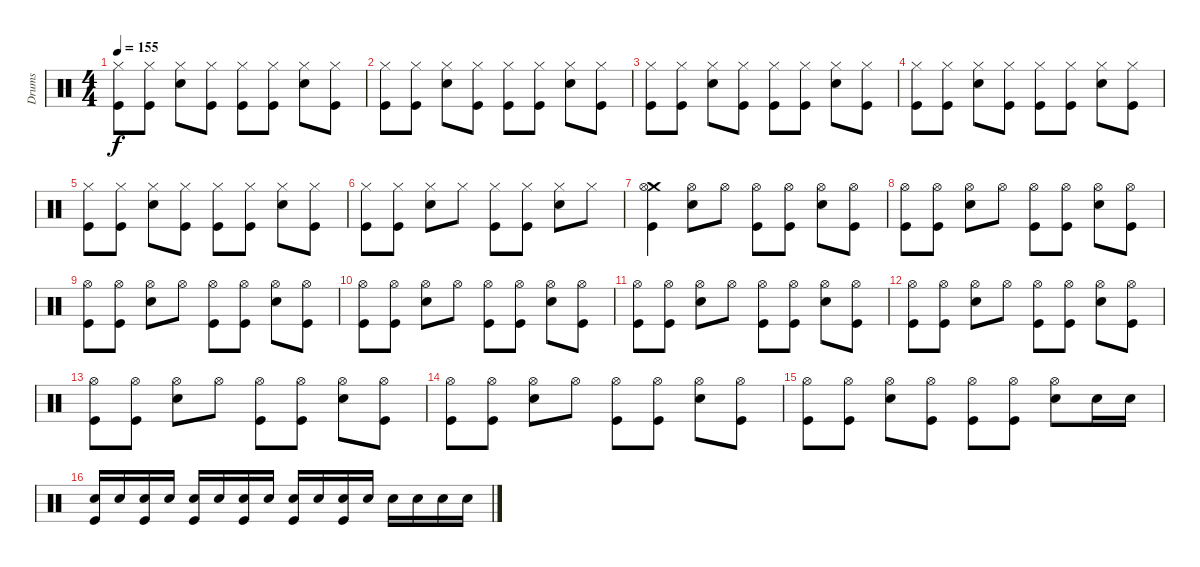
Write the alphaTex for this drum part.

\track ("Drums" "Drums") {instrument percussion}
\staff {score}
\articulation defaults
\ts (4 4)
\tempo 155
\clef neutral
\ks c
("Hi-Hat (closed)" "Kick (hit)").8{dy f} ("Hi-Hat (closed)" "Kick (hit)").8 ("Hi-Hat (closed)" "Snare (hit) 2").8 ("Hi-Hat (closed)" "Kick (hit)").8 ("Hi-Hat (closed)" "Kick (hit)").8 ("Hi-Hat (closed)" "Kick (hit)").8 ("Hi-Hat (closed)" "Snare (hit) 2").8 ("Hi-Hat (closed)" "Kick (hit)").8 |
("Hi-Hat (closed)" "Kick (hit)").8 ("Hi-Hat (closed)" "Kick (hit)").8 ("Hi-Hat (closed)" "Snare (hit) 2").8 ("Hi-Hat (closed)" "Kick (hit)").8 ("Hi-Hat (closed)" "Kick (hit)").8 ("Hi-Hat (closed)" "Kick (hit)").8 ("Hi-Hat (closed)" "Snare (hit) 2").8 ("Hi-Hat (closed)" "Kick (hit)").8 |
("Hi-Hat (closed)" "Kick (hit)").8 ("Hi-Hat (closed)" "Kick (hit)").8 ("Hi-Hat (closed)" "Snare (hit) 2").8 ("Hi-Hat (closed)" "Kick (hit)").8 ("Hi-Hat (closed)" "Kick (hit)").8 ("Hi-Hat (closed)" "Kick (hit)").8 ("Hi-Hat (closed)" "Snare (hit) 2").8 ("Hi-Hat (closed)" "Kick (hit)").8 |
("Hi-Hat (closed)" "Kick (hit)").8 ("Hi-Hat (closed)" "Kick (hit)").8 ("Hi-Hat (closed)" "Snare (hit) 2").8 ("Hi-Hat (closed)" "Kick (hit)").8 ("Hi-Hat (closed)" "Kick (hit)").8 ("Hi-Hat (closed)" "Kick (hit)").8 ("Hi-Hat (closed)" "Snare (hit) 2").8 ("Hi-Hat (closed)" "Kick (hit)").8 |
("Hi-Hat (closed)" "Kick (hit)").8 ("Hi-Hat (closed)" "Kick (hit)").8 ("Hi-Hat (closed)" "Snare (hit) 2").8 ("Hi-Hat (closed)" "Kick (hit)").8 ("Hi-Hat (closed)" "Kick (hit)").8 ("Hi-Hat (closed)" "Kick (hit)").8 ("Hi-Hat (closed)" "Snare (hit) 2").8 ("Hi-Hat (closed)" "Kick (hit)").8 |
("Hi-Hat (closed)" "Kick (hit)").8 ("Hi-Hat (closed)" "Kick (hit)").8 ("Hi-Hat (closed)" "Snare (hit) 2").8 "Hi-Hat (closed)".8 ("Hi-Hat (closed)" "Kick (hit)").8 ("Hi-Hat (closed)" "Kick (hit)").8 ("Hi-Hat (closed)" "Snare (hit) 2").8 "Hi-Hat (closed)".8 |
("Crash medium (hit)" "Hi-Hat (open)" "Kick (hit)").4 ("Hi-Hat (open)" "Snare (hit) 2").8 "Hi-Hat (open)".8 ("Hi-Hat (open)" "Kick (hit)").8 ("Hi-Hat (open)" "Kick (hit)").8 ("Hi-Hat (open)" "Snare (hit) 2").8 ("Hi-Hat (open)" "Kick (hit)").8 |
("Hi-Hat (open)" "Kick (hit)").8 ("Hi-Hat (open)" "Kick (hit)").8 ("Hi-Hat (open)" "Snare (hit) 2").8 "Hi-Hat (open)".8 ("Hi-Hat (open)" "Kick (hit)").8 ("Hi-Hat (open)" "Kick (hit)").8 ("Hi-Hat (open)" "Snare (hit) 2").8 ("Hi-Hat (open)" "Kick (hit)").8 |
("Hi-Hat (open)" "Kick (hit)").8 ("Hi-Hat (open)" "Kick (hit)").8 ("Hi-Hat (open)" "Snare (hit) 2").8 "Hi-Hat (open)".8 ("Hi-Hat (open)" "Kick (hit)").8 ("Hi-Hat (open)" "Kick (hit)").8 ("Hi-Hat (open)" "Snare (hit) 2").8 ("Hi-Hat (open)" "Kick (hit)").8 |
("Hi-Hat (open)" "Kick (hit)").8 ("Hi-Hat (open)" "Kick (hit)").8 ("Hi-Hat (open)" "Snare (hit) 2").8 "Hi-Hat (open)".8 ("Hi-Hat (open)" "Kick (hit)").8 ("Hi-Hat (open)" "Kick (hit)").8 ("Hi-Hat (open)" "Snare (hit) 2").8 ("Hi-Hat (open)" "Kick (hit)").8 |
("Hi-Hat (open)" "Kick (hit)").8 ("Hi-Hat (open)" "Kick (hit)").8 ("Hi-Hat (open)" "Snare (hit) 2").8 "Hi-Hat (open)".8 ("Hi-Hat (open)" "Kick (hit)").8 ("Hi-Hat (open)" "Kick (hit)").8 ("Hi-Hat (open)" "Snare (hit) 2").8 ("Hi-Hat (open)" "Kick (hit)").8 |
("Hi-Hat (open)" "Kick (hit)").8 ("Hi-Hat (open)" "Kick (hit)").8 ("Hi-Hat (open)" "Snare (hit) 2").8 "Hi-Hat (open)".8 ("Hi-Hat (open)" "Kick (hit)").8 ("Hi-Hat (open)" "Kick (hit)").8 ("Hi-Hat (open)" "Snare (hit) 2").8 ("Hi-Hat (open)" "Kick (hit)").8 |
("Hi-Hat (open)" "Kick (hit)").8 ("Hi-Hat (open)" "Kick (hit)").8 ("Hi-Hat (open)" "Snare (hit) 2").8 "Hi-Hat (open)".8 ("Hi-Hat (open)" "Kick (hit)").8 ("Hi-Hat (open)" "Kick (hit)").8 ("Hi-Hat (open)" "Snare (hit) 2").8 ("Hi-Hat (open)" "Kick (hit)").8 |
("Hi-Hat (open)" "Kick (hit)").8 ("Hi-Hat (open)" "Kick (hit)").8 ("Hi-Hat (open)" "Snare (hit) 2").8 "Hi-Hat (open)".8 ("Hi-Hat (open)" "Kick (hit)").8 ("Hi-Hat (open)" "Kick (hit)").8 ("Hi-Hat (open)" "Snare (hit) 2").8 ("Hi-Hat (open)" "Kick (hit)").8 |
("Hi-Hat (open)" "Kick (hit)").8 ("Hi-Hat (open)" "Kick (hit)").8 ("Hi-Hat (open)" "Snare (hit) 2").8 ("Hi-Hat (open)" "Kick (hit)").8 ("Hi-Hat (open)" "Kick (hit)").8 ("Hi-Hat (open)" "Kick (hit)").8 ("Hi-Hat (open)" "Snare (hit) 2").8 "Snare (hit) 2".16 "Snare (hit) 2".16 |
("Snare (hit) 2" "Kick (hit)").16 "Snare (hit) 2".16 ("Snare (hit) 2" "Kick (hit)").16 "Snare (hit) 2".16 ("Snare (hit) 2" "Kick (hit)").16 "Snare (hit) 2".16 ("Snare (hit) 2" "Kick (hit)").16 "Snare (hit) 2".16 ("Snare (hit) 2" "Kick (hit)").16 "Snare (hit) 2".16 ("Snare (hit) 2" "Kick (hit)").16 "Snare (hit) 2".16 "Snare (hit) 2".16 "Snare (hit) 2".16 "Snare (hit) 2".16 "Snare (hit) 2".16
